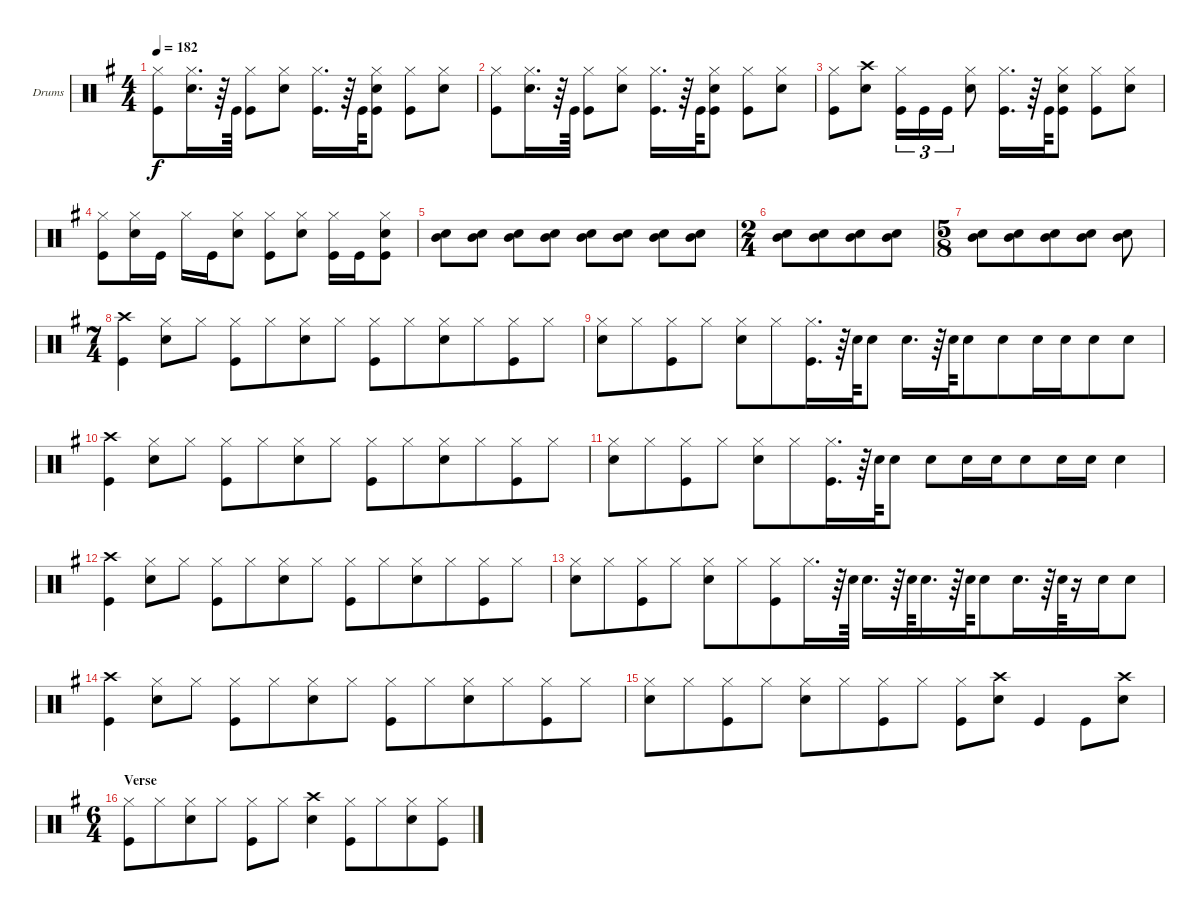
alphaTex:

\bracketExtendMode groupsimilarinstruments
\firstSystemTrackNameOrientation horizontal
\otherSystemsTrackNameOrientation horizontal
\track ("Drumkit" "Drums") {instrument percussion}
\staff {score}
\articulation defaults
\ts (4 4)
\tempo 182
\clef neutral
\scale
1.04288
\ks g
("Kick (hit)" "Hi-Hat (closed)").8{dy f} ("Snare (hit) 2" "Hi-Hat (closed)").16{d} r.64 "Kick (hit)".64 ("Kick (hit)" "Hi-Hat (closed)").8 ("Snare (hit) 2" "Hi-Hat (closed)").8 ("Kick (hit)" "Hi-Hat (closed)").16{d} r.64 "Kick (hit)".64 ("Kick (hit)" "Snare (hit) 2" "Hi-Hat (closed)").8 ("Kick (hit)" "Hi-Hat (closed)").8 ("Snare (hit) 2" "Hi-Hat (closed)").8 |
\scale
0.957125 ("Kick (hit)" "Hi-Hat (closed)").8 ("Snare (hit) 2" "Hi-Hat (closed)").16{d} r.64 "Kick (hit)".64 ("Kick (hit)" "Hi-Hat (closed)").8 ("Snare (hit) 2" "Hi-Hat (closed)").8 ("Kick (hit)" "Hi-Hat (closed)").16{d} r.64 "Kick (hit)".64 ("Kick (hit)" "Snare (hit) 2" "Hi-Hat (closed)").8 ("Kick (hit)" "Hi-Hat (closed)").8 ("Snare (hit) 2" "Hi-Hat (closed)").8 |
\scale
1.04288 ("Hi-Hat (closed)" "Kick (hit)").8 ("Crash high (hit)" "Snare (hit) 2").8 ("Kick (hit)" "Hi-Hat (closed)").16{tu (3 2)} "Kick (hit)".16{tu (3 2)} "Kick (hit)".16{tu (3 2)} ("Snare (hit) 2" "Hi-Hat (closed)").8 ("Kick (hit)" "Hi-Hat (closed)").16{d} r.64 "Kick (hit)".64 ("Kick (hit)" "Snare (hit) 2" "Hi-Hat (closed)").8 ("Kick (hit)" "Hi-Hat (closed)").8 ("Snare (hit) 2" "Hi-Hat (closed)").8 |
\scale
0.957125 ("Hi-Hat (closed)" "Kick (hit)").8 ("Snare (hit) 2" "Hi-Hat (closed)").16 "Kick (hit)".16 "Hi-Hat (closed)".16 "Kick (hit)".16 ("Snare (hit) 2" "Hi-Hat (closed)").8 ("Hi-Hat (closed)" "Kick (hit)").8 ("Snare (hit) 2" "Hi-Hat (closed)").8 ("Hi-Hat (closed)" "Kick (hit)").16 "Kick (hit)".16 ("Kick (hit)" "Snare (hit) 2" "Hi-Hat (closed)").8 |
\scale
1.04288 ("Snare (hit) 2" "Mid Tom (hit)").8 ("Snare (hit) 2" "Mid Tom (hit)").8 ("Snare (hit) 2" "Mid Tom (hit)").8 ("Snare (hit) 2" "Mid Tom (hit)").8 ("Snare (hit) 2" "Mid Tom (hit)").8 ("Snare (hit) 2" "Mid Tom (hit)").8 ("Snare (hit) 2" "Mid Tom (hit)").8 ("Snare (hit) 2" "Mid Tom (hit)").8 |
\ts (2 4)
\beaming (8 4 4)
\scale
0.957125 ("Snare (hit) 2" "Mid Tom (hit)").8 ("Snare (hit) 2" "Mid Tom (hit)").8 ("Snare (hit) 2" "Mid Tom (hit)").8 ("Snare (hit) 2" "Mid Tom (hit)").8 |
\ts (5 8)
\beaming (8 4 4)
\scale
1.07314 ("Snare (hit) 2" "Mid Tom (hit)").8 ("Snare (hit) 2" "Mid Tom (hit)").8 ("Snare (hit) 2" "Mid Tom (hit)").8 ("Snare (hit) 2" "Mid Tom (hit)").8 ("Snare (hit) 2" "Mid Tom (hit)").8 |
\ts (7 4)
\beaming (8 4 4 6)
\scale
0.92686 ("Kick (hit)" "Crash high (hit)").4 ("Hi-Hat (closed)" "Snare (hit) 2").8 "Hi-Hat (closed)".8 ("Hi-Hat (closed)" "Kick (hit)").8 "Hi-Hat (closed)".8 ("Snare (hit) 2" "Hi-Hat (closed)").8 "Hi-Hat (closed)".8 ("Hi-Hat (closed)" "Kick (hit)").8 "Hi-Hat (closed)".8 ("Snare (hit) 2" "Hi-Hat (closed)").8 "Hi-Hat (closed)".8 ("Hi-Hat (closed)" "Kick (hit)").8 "Hi-Hat (closed)".8 |
\scale
1.04288 ("Hi-Hat (closed)" "Snare (hit) 2").8 "Hi-Hat (closed)".8 ("Hi-Hat (closed)" "Kick (hit)").8 "Hi-Hat (closed)".8 ("Hi-Hat (closed)" "Snare (hit) 2").8 "Hi-Hat (closed)".8 ("Hi-Hat (closed)" "Kick (hit)").16{d} r.64 "Snare (hit) 2".64 "Snare (hit) 2".8 "Snare (hit) 2".16{d} r.64 "Snare (hit) 2".64 "Snare (hit) 2".8 "Snare (hit) 2".8 "Snare (hit) 2".16 "Snare (hit) 2".16 "Snare (hit) 2".8 "Snare (hit) 2".8 |
\scale
0.957125 ("Kick (hit)" "Crash high (hit)").4 ("Hi-Hat (closed)" "Snare (hit) 2").8 "Hi-Hat (closed)".8 ("Hi-Hat (closed)" "Kick (hit)").8 "Hi-Hat (closed)".8 ("Snare (hit) 2" "Hi-Hat (closed)").8 "Hi-Hat (closed)".8 ("Hi-Hat (closed)" "Kick (hit)").8 "Hi-Hat (closed)".8 ("Snare (hit) 2" "Hi-Hat (closed)").8 "Hi-Hat (closed)".8 ("Hi-Hat (closed)" "Kick (hit)").8 "Hi-Hat (closed)".8 |
\scale
1.04288 ("Hi-Hat (closed)" "Snare (hit) 2").8 "Hi-Hat (closed)".8 ("Hi-Hat (closed)" "Kick (hit)").8 "Hi-Hat (closed)".8 ("Hi-Hat (closed)" "Snare (hit) 2").8 "Hi-Hat (closed)".8 ("Hi-Hat (closed)" "Kick (hit)").16{d} r.64 "Snare (hit) 2".64 "Snare (hit) 2".8 "Snare (hit) 2".8 "Snare (hit) 2".16 "Snare (hit) 2".16 "Snare (hit) 2".8 "Snare (hit) 2".16 "Snare (hit) 2".16 "Snare (hit) 2".4 |
\scale
0.957125 ("Kick (hit)" "Crash high (hit)").4 ("Hi-Hat (closed)" "Snare (hit) 2").8 "Hi-Hat (closed)".8 ("Hi-Hat (closed)" "Kick (hit)").8 "Hi-Hat (closed)".8 ("Snare (hit) 2" "Hi-Hat (closed)").8 "Hi-Hat (closed)".8 ("Hi-Hat (closed)" "Kick (hit)").8 "Hi-Hat (closed)".8 ("Snare (hit) 2" "Hi-Hat (closed)").8 "Hi-Hat (closed)".8 ("Hi-Hat (closed)" "Kick (hit)").8 "Hi-Hat (closed)".8 |
\scale
1.04288 ("Hi-Hat (closed)" "Snare (hit) 2").8 "Hi-Hat (closed)".8 ("Hi-Hat (closed)" "Kick (hit)").8 "Hi-Hat (closed)".8 ("Hi-Hat (closed)" "Snare (hit) 2").8 "Hi-Hat (closed)".8 ("Hi-Hat (closed)" "Kick (hit)").8 "Hi-Hat (closed)".16{d} r.64 "Snare (hit) 2".64 "Snare (hit) 2".16{d} r.64 "Snare (hit) 2".64 "Snare (hit) 2".16{d} r.64 "Snare (hit) 2".64 "Snare (hit) 2".8 "Snare (hit) 2".16{d} r.64 "Snare (hit) 2".64 r.16 "Snare (hit) 2".16 "Snare (hit) 2".8 |
\scale
0.957125 ("Kick (hit)" "Crash high (hit)").4 ("Hi-Hat (closed)" "Snare (hit) 2").8 "Hi-Hat (closed)".8 ("Kick (hit)" "Hi-Hat (closed)").8 "Hi-Hat (closed)".8 ("Snare (hit) 2" "Hi-Hat (closed)").8 "Hi-Hat (closed)".8 ("Kick (hit)" "Hi-Hat (closed)").8 "Hi-Hat (closed)".8 ("Snare (hit) 2" "Hi-Hat (closed)").8 "Hi-Hat (closed)".8 ("Kick (hit)" "Hi-Hat (closed)").8 "Hi-Hat (closed)".8 |
\scale
1.04288 ("Hi-Hat (closed)" "Snare (hit) 2").8 "Hi-Hat (closed)".8 ("Hi-Hat (closed)" "Kick (hit)").8 "Hi-Hat (closed)".8 ("Snare (hit) 2" "Hi-Hat (closed)").8 "Hi-Hat (closed)".8 ("Hi-Hat (closed)" "Kick (hit)").8 "Hi-Hat (closed)".8 ("Hi-Hat (closed)" "Kick (hit)").8 ("Crash high (hit)" "Snare (hit) 2").8 "Kick (hit)".4 "Kick (hit)".8 ("Snare (hit) 2" "Crash high (hit)").8 |
\ts (6 4)
\beaming (8 4 4 6)
\section ("" "Verse")
\scale
0.957125 ("Hi-Hat (closed)" "Kick (hit)").8 "Hi-Hat (closed)".8 ("Snare (hit) 2" "Hi-Hat (closed)").8 "Hi-Hat (closed)".8 ("Hi-Hat (closed)" "Kick (hit)").8 "Hi-Hat (closed)".8 ("Snare (hit) 2" "Crash high (hit)").4 ("Hi-Hat (closed)" "Kick (hit)").8 "Hi-Hat (closed)".8 ("Snare (hit) 2" "Hi-Hat (closed)").8 ("Kick (hit)" "Hi-Hat (closed)").8
